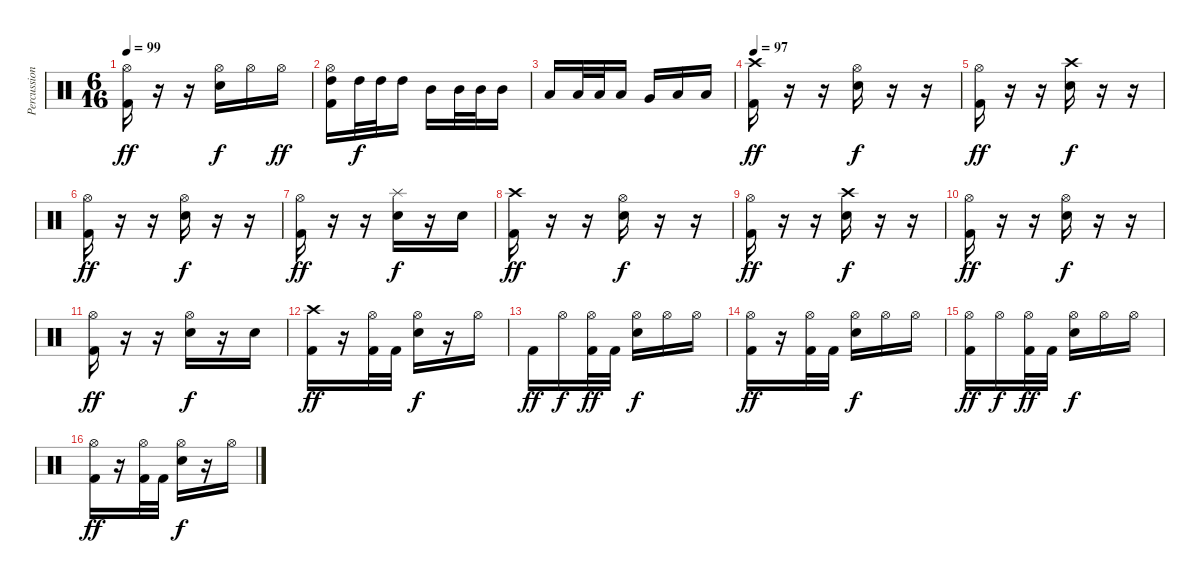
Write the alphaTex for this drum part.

\track ("Percussion" "Percussion") {instrument percussion}
\staff {score}
\articulation defaults
\ts (6 16)
\tempo 99
\clef neutral
\ks c
("Hi-Hat (open)" "Kick (hit) 2").16{dy ff} r.16 r.16 ("Hi-Hat (open)" "Electric Snare (hit)").16{dy f} "Hi-Hat (open)".16 "Hi-Hat (open)".16{dy ff} |
("Hi-Hat (open)" "High Tom (hit)" "Kick (hit) 2").16 "High Tom (hit)".32{dy f} "High Tom (hit)".32 "High Tom (hit)".16 "Mid Tom (hit)".16 "Mid Tom (hit)".32 "Mid Tom (hit)".32 "Mid Tom (hit)".16 |
"Low Tom (hit)".16 "Low Tom (hit)".32 "Low Tom (hit)".32 "Low Tom (hit)".16 "Very Low Tom (hit)".16 "Low Floor Tom (hit)".16 "Low Floor Tom (hit)".16 |
\tempo 97
("Crash high (hit)" "Kick (hit) 2").16{dy ff} r.16 r.16 ("Hi-Hat (open)" "Electric Snare (hit)").16{dy f} r.16 r.16 |
("Hi-Hat (open)" "Kick (hit) 2").16{dy ff} r.16 r.16 ("Crash high (hit)" "Electric Snare (hit)").16{dy f} r.16 r.16 |
("Hi-Hat (open)" "Kick (hit) 2").16{dy ff} r.16 r.16 ("Hi-Hat (open)" "Electric Snare (hit)").16{dy f} r.16 r.16 |
("Hi-Hat (open)" "Kick (hit) 2").16{dy ff} r.16 r.16 ("Splash (hit)" "Electric Snare (hit)").16{dy f} r.16 "Electric Snare (hit)".16 |
("Crash high (hit)" "Kick (hit) 2").16{dy ff} r.16 r.16 ("Hi-Hat (open)" "Electric Snare (hit)").16{dy f} r.16 r.16 |
("Hi-Hat (open)" "Kick (hit) 2").16{dy ff} r.16 r.16 ("Crash high (hit)" "Electric Snare (hit)").16{dy f} r.16 r.16 |
("Hi-Hat (open)" "Kick (hit) 2").16{dy ff} r.16 r.16 ("Hi-Hat (open)" "Electric Snare (hit)").16{dy f} r.16 r.16 |
("Hi-Hat (open)" "Kick (hit) 2").16{dy ff} r.16 r.16 ("Hi-Hat (open)" "Electric Snare (hit)").16{dy f} r.16 "Electric Snare (hit)".16 |
("Crash high (hit)" "Kick (hit) 2").16{dy ff} r.16 ("Hi-Hat (open)" "Kick (hit) 2").32 "Kick (hit) 2".32 ("Hi-Hat (open)" "Electric Snare (hit)").16{dy f} r.16 "Hi-Hat (open)".16 |
"Kick (hit) 2".16{dy ff} "Hi-Hat (open)".16{dy f} ("Hi-Hat (open)" "Kick (hit) 2").32{dy ff} "Kick (hit) 2".32 ("Hi-Hat (open)" "Electric Snare (hit)").16{dy f} "Hi-Hat (open)".16 "Hi-Hat (open)".16 |
("Hi-Hat (open)" "Kick (hit) 2").16{dy ff} r.16 ("Hi-Hat (open)" "Kick (hit) 2").32 "Kick (hit) 2".32 ("Hi-Hat (open)" "Electric Snare (hit)").16{dy f} "Hi-Hat (open)".16 "Hi-Hat (open)".16 |
("Hi-Hat (open)" "Kick (hit) 2").16{dy ff} "Hi-Hat (open)".16{dy f} ("Hi-Hat (open)" "Kick (hit) 2").32{dy ff} "Kick (hit) 2".32 ("Hi-Hat (open)" "Electric Snare (hit)").16{dy f} "Hi-Hat (open)".16 "Hi-Hat (open)".16 |
("Hi-Hat (open)" "Kick (hit) 2").16{dy ff} r.16 ("Hi-Hat (open)" "Kick (hit) 2").32 "Kick (hit) 2".32 ("Hi-Hat (open)" "Electric Snare (hit)").16{dy f} r.16 "Hi-Hat (open)".16
